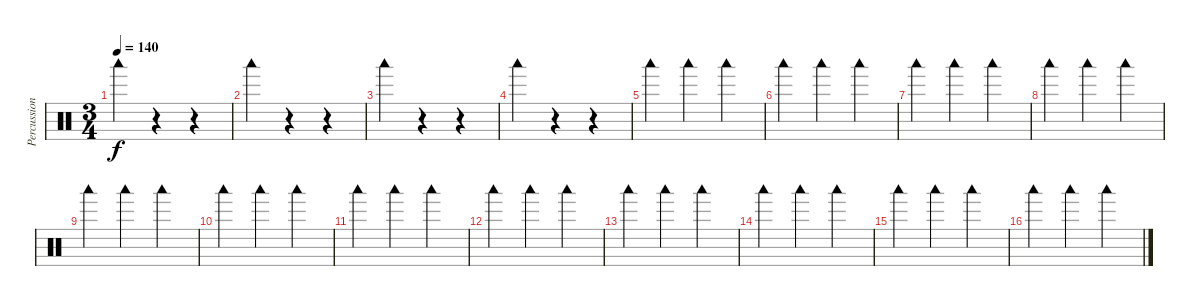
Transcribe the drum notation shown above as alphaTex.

\track ("Percussions" "Percussion") {instrument percussion}
\staff {score}
\articulation defaults
\ts (3 4)
\tempo 140
\clef neutral
\ks c "Woodblock low (hit)".4{dy f}
r.4 r.4 |
"Woodblock low (hit)".4 r.4 r.4 |
"Woodblock low (hit)".4 r.4 r.4 |
"Woodblock low (hit)".4 r.4 r.4 |
"Woodblock low (hit)".4 "Woodblock low (hit)".4 "Woodblock low (hit)".4 |
"Woodblock low (hit)".4 "Woodblock low (hit)".4 "Woodblock low (hit)".4 |
"Woodblock low (hit)".4 "Woodblock low (hit)".4 "Woodblock low (hit)".4 |
"Woodblock low (hit)".4 "Woodblock low (hit)".4 "Woodblock low (hit)".4 |
"Woodblock low (hit)".4 "Woodblock low (hit)".4 "Woodblock low (hit)".4 |
"Woodblock low (hit)".4 "Woodblock low (hit)".4 "Woodblock low (hit)".4 |
"Woodblock low (hit)".4 "Woodblock low (hit)".4 "Woodblock low (hit)".4 |
"Woodblock low (hit)".4 "Woodblock low (hit)".4 "Woodblock low (hit)".4 |
"Woodblock low (hit)".4 "Woodblock low (hit)".4 "Woodblock low (hit)".4 |
"Woodblock low (hit)".4 "Woodblock low (hit)".4 "Woodblock low (hit)".4 |
"Woodblock low (hit)".4 "Woodblock low (hit)".4 "Woodblock low (hit)".4 |
"Woodblock low (hit)".4 "Woodblock low (hit)".4 "Woodblock low (hit)".4
